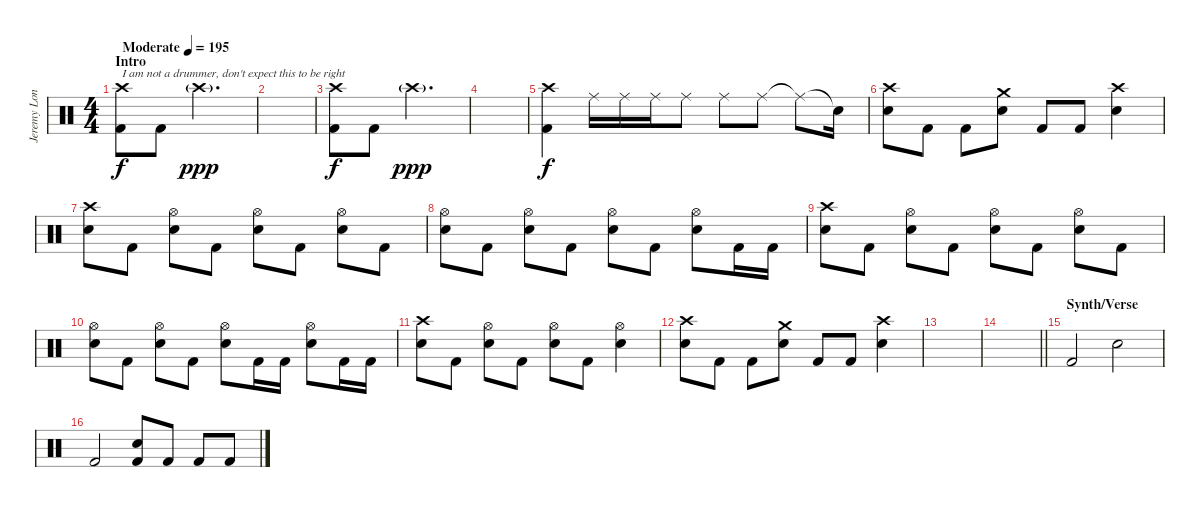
\track ("Jeremy London" "Jeremy Lon") {instrument percussion}
\staff {score}
\articulation defaults
\ts (4 4)
\section ("" "Intro")
\tempo (195 "Moderate")
\clef neutral
\ks c
("Crash high (hit)" "Kick (hit) 2").8{txt "I am not a drummer, don't expect this to be right" dy f} "Kick (hit) 2".8 "Crash high (hit)"{g}.2{d dy ppp} |
|
("Crash high (hit)" "Kick (hit) 2").8{dy f} "Kick (hit) 2".8 "Crash high (hit)"{g}.2{d dy ppp} |
|
("Crash high (hit)" "Kick (hit) 2").4{dy f} "Ride (middle)".16 "Ride (middle)".16 "Ride (middle)".16 "Ride (middle)".8 "Ride (middle)".8 "Ride (middle)".8 "Ride (middle)"{t}.8 "Snare (hit)"{t}.16 |
("Crash high (hit)" "Electric Snare (hit)").8 "Kick (hit) 2".8 "Kick (hit) 2".8 ("Crash medium (hit)" "Electric Snare (hit)").8 "Kick (hit) 2".8 "Kick (hit) 2".8 ("Crash high (hit)" "Electric Snare (hit)").4 |
("Crash high (hit)" "Electric Snare (hit)").8 "Kick (hit) 2".8 ("Hi-Hat (open)" "Electric Snare (hit)").8 "Kick (hit) 2".8 ("Hi-Hat (open)" "Electric Snare (hit)").8 "Kick (hit) 2".8 ("Hi-Hat (open)" "Electric Snare (hit)").8 "Kick (hit) 2".8 |
("Hi-Hat (open)" "Electric Snare (hit)").8 "Kick (hit) 2".8 ("Hi-Hat (open)" "Electric Snare (hit)").8 "Kick (hit) 2".8 ("Hi-Hat (open)" "Electric Snare (hit)").8 "Kick (hit) 2".8 ("Hi-Hat (open)" "Electric Snare (hit)").8 "Kick (hit) 2".16 "Kick (hit) 2".16 |
("Crash high (hit)" "Electric Snare (hit)").8 "Kick (hit) 2".8 ("Hi-Hat (open)" "Electric Snare (hit)").8 "Kick (hit) 2".8 ("Hi-Hat (open)" "Electric Snare (hit)").8 "Kick (hit) 2".8 ("Hi-Hat (open)" "Electric Snare (hit)").8 "Kick (hit) 2".8 |
("Hi-Hat (open)" "Electric Snare (hit)").8 "Kick (hit) 2".8 ("Hi-Hat (open)" "Electric Snare (hit)").8 "Kick (hit) 2".8 ("Hi-Hat (open)" "Electric Snare (hit)").8 "Kick (hit) 2".16 "Kick (hit) 2".16 ("Hi-Hat (open)" "Electric Snare (hit)").8 "Kick (hit) 2".16 "Kick (hit) 2".16 |
("Crash high (hit)" "Electric Snare (hit)").8 "Kick (hit) 2".8 ("Hi-Hat (open)" "Electric Snare (hit)").8 "Kick (hit) 2".8 ("Hi-Hat (open)" "Electric Snare (hit)").8 "Kick (hit) 2".8 ("Hi-Hat (open)" "Electric Snare (hit)").4 |
("Crash high (hit)" "Electric Snare (hit)").8 "Kick (hit) 2".8 "Kick (hit) 2".8 ("Crash medium (hit)" "Electric Snare (hit)").8 "Kick (hit) 2".8 "Kick (hit) 2".8 ("Crash high (hit)" "Electric Snare (hit)").4 |
|
\barLineRight lightlight
|
\section ("" "Synth/Verse")
"Kick (hit) 2".2 "Electric Snare (hit)".2 |
"Kick (hit) 2".2 ("Electric Snare (hit)" "Kick (hit) 2").8 "Kick (hit) 2".8 "Kick (hit) 2".8 "Kick (hit) 2".8
